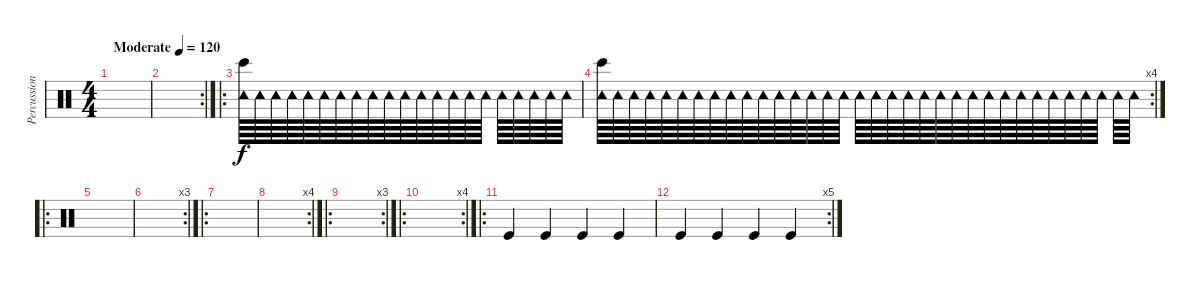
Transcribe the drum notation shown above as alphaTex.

\track ("Percussion" "Percussion") {instrument percussion}
\staff {score}
\articulation defaults
\ts (4 4)
\tempo (120 "Moderate")
\clef neutral
\ks c
|
\rc 2
|
\ro
("Tambourine (hit)" "Bongo High (hit)").64 "Tambourine (hit)".64 "Tambourine (hit)".64 "Tambourine (hit)".64 "Tambourine (hit)".64 "Tambourine (hit)".64 "Tambourine (hit)".64 "Tambourine (hit)".64 "Tambourine (hit)".64 "Tambourine (hit)".64 "Tambourine (hit)".64 "Tambourine (hit)".64 "Tambourine (hit)".64 "Tambourine (hit)".64 "Tambourine (hit)".64 "Tambourine (hit)".64 "Tambourine (hit)".64 "Tambourine (hit)".64 "Tambourine (hit)".64 "Tambourine (hit)".64 "Tambourine (hit)".64 |
\rc 4
("Tambourine (hit)" "Bongo High (hit)").64 "Tambourine (hit)".64 "Tambourine (hit)".64 "Tambourine (hit)".64 "Tambourine (hit)".64 "Tambourine (hit)".64 "Tambourine (hit)".64 "Tambourine (hit)".64 "Tambourine (hit)".64 "Tambourine (hit)".64 "Tambourine (hit)".64 "Tambourine (hit)".64 "Tambourine (hit)".64 "Tambourine (hit)".64 "Tambourine (hit)".64 "Tambourine (hit)".64 "Tambourine (hit)".64 "Tambourine (hit)".64 "Tambourine (hit)".64 "Tambourine (hit)".64 "Tambourine (hit)".64 "Tambourine (hit)".64 "Tambourine (hit)".64 "Tambourine (hit)".64 "Tambourine (hit)".64 "Tambourine (hit)".64 "Tambourine (hit)".64 "Tambourine (hit)".64 "Tambourine (hit)".64 "Tambourine (hit)".64 "Tambourine (hit)".64 "Tambourine (hit)".64 "Tambourine (hit)".64 "Tambourine (hit)".64 |
\ro
|
\rc 3
|
\ro
|
\rc 4
|
\ro
\rc 3
|
\ro
\rc 4
|
\ro "Kick (hit)".4 "Kick (hit)".4 "Kick (hit)".4 "Kick (hit)".4
|
\rc 5 "Kick (hit)".4 "Kick (hit)".4 "Kick (hit)".4 "Kick (hit)".4
